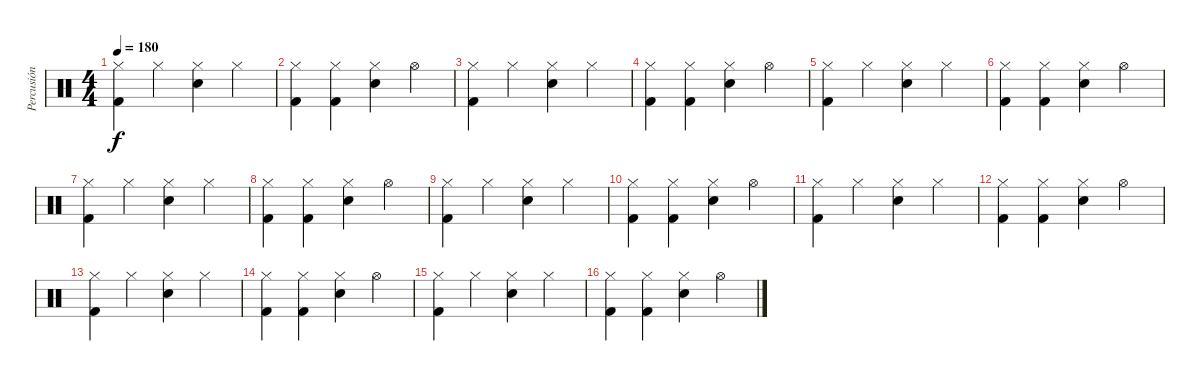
\track ("Percusión" "Percusión") {instrument percussion}
\staff {score}
\articulation defaults
\ts (4 4)
\tempo 180
\clef neutral
\ks c
("Hi-Hat (closed)" "Kick (hit) 2").4{dy f} "Hi-Hat (closed)".4 ("Hi-Hat (closed)" "Snare (hit) 2").4 "Hi-Hat (closed)".4 |
("Hi-Hat (closed)" "Kick (hit) 2").4 ("Hi-Hat (closed)" "Kick (hit) 2").4 ("Hi-Hat (closed)" "Snare (hit) 2").4 "Hi-Hat (open)".4 |
("Hi-Hat (closed)" "Kick (hit) 2").4 "Hi-Hat (closed)".4 ("Hi-Hat (closed)" "Snare (hit) 2").4 "Hi-Hat (closed)".4 |
("Hi-Hat (closed)" "Kick (hit) 2").4 ("Hi-Hat (closed)" "Kick (hit) 2").4 ("Hi-Hat (closed)" "Snare (hit) 2").4 "Hi-Hat (open)".4 |
("Hi-Hat (closed)" "Kick (hit) 2").4 "Hi-Hat (closed)".4 ("Hi-Hat (closed)" "Snare (hit) 2").4 "Hi-Hat (closed)".4 |
("Hi-Hat (closed)" "Kick (hit) 2").4 ("Hi-Hat (closed)" "Kick (hit) 2").4 ("Hi-Hat (closed)" "Snare (hit) 2").4 "Hi-Hat (open)".4 |
("Hi-Hat (closed)" "Kick (hit) 2").4 "Hi-Hat (closed)".4 ("Hi-Hat (closed)" "Snare (hit) 2").4 "Hi-Hat (closed)".4 |
("Hi-Hat (closed)" "Kick (hit) 2").4 ("Hi-Hat (closed)" "Kick (hit) 2").4 ("Hi-Hat (closed)" "Snare (hit) 2").4 "Hi-Hat (open)".4 |
("Hi-Hat (closed)" "Kick (hit) 2").4 "Hi-Hat (closed)".4 ("Hi-Hat (closed)" "Snare (hit) 2").4 "Hi-Hat (closed)".4 |
("Hi-Hat (closed)" "Kick (hit) 2").4 ("Hi-Hat (closed)" "Kick (hit) 2").4 ("Hi-Hat (closed)" "Snare (hit) 2").4 "Hi-Hat (open)".4 |
("Hi-Hat (closed)" "Kick (hit) 2").4 "Hi-Hat (closed)".4 ("Hi-Hat (closed)" "Snare (hit) 2").4 "Hi-Hat (closed)".4 |
("Hi-Hat (closed)" "Kick (hit) 2").4 ("Hi-Hat (closed)" "Kick (hit) 2").4 ("Hi-Hat (closed)" "Snare (hit) 2").4 "Hi-Hat (open)".4 |
("Hi-Hat (closed)" "Kick (hit) 2").4 "Hi-Hat (closed)".4 ("Hi-Hat (closed)" "Snare (hit) 2").4 "Hi-Hat (closed)".4 |
("Hi-Hat (closed)" "Kick (hit) 2").4 ("Hi-Hat (closed)" "Kick (hit) 2").4 ("Hi-Hat (closed)" "Snare (hit) 2").4 "Hi-Hat (open)".4 |
("Hi-Hat (closed)" "Kick (hit) 2").4 "Hi-Hat (closed)".4 ("Hi-Hat (closed)" "Snare (hit) 2").4 "Hi-Hat (closed)".4 |
("Hi-Hat (closed)" "Kick (hit) 2").4 ("Hi-Hat (closed)" "Kick (hit) 2").4 ("Hi-Hat (closed)" "Snare (hit) 2").4 "Hi-Hat (open)".4
